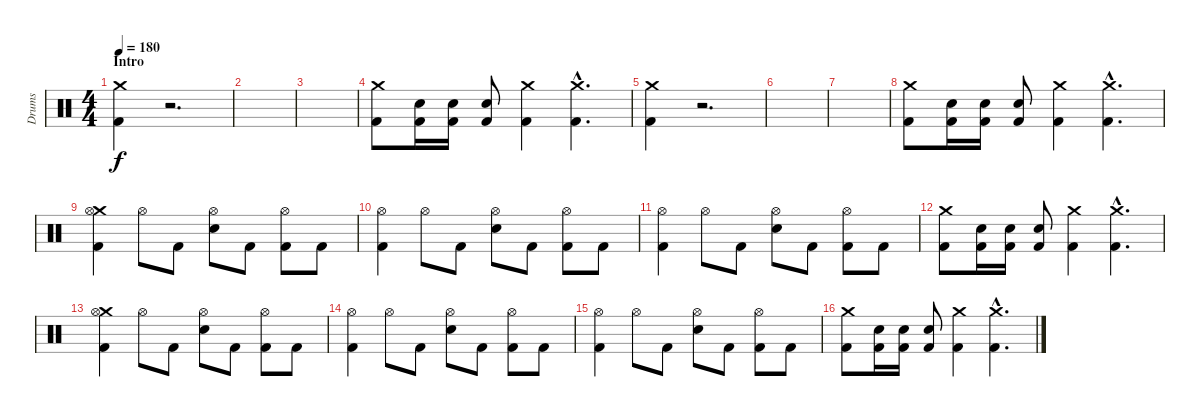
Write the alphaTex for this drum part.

\track ("Drums" "Drums") {instrument percussion}
\staff {score}
\articulation defaults
\ts (4 4)
\section ("" "Intro")
\tempo 180
\clef neutral
\ks c
("Crash medium (hit)" "Kick (hit) 2").4{dy f} r.2{d} |
|
|
("Crash medium (hit)" "Kick (hit) 2").8 ("Snare (hit) 2" "Kick (hit) 2").16 ("Snare (hit) 2" "Kick (hit) 2").16 ("Snare (hit) 2" "Kick (hit) 2").8 ("Crash medium (hit)" "Kick (hit) 2").4 ("Crash medium (hit)"{hac} "Kick (hit) 2"{hac}).4{d} |
("Crash medium (hit)" "Kick (hit) 2").4 r.2{d} |
|
|
("Crash medium (hit)" "Kick (hit) 2").8 ("Snare (hit) 2" "Kick (hit) 2").16 ("Snare (hit) 2" "Kick (hit) 2").16 ("Snare (hit) 2" "Kick (hit) 2").8 ("Crash medium (hit)" "Kick (hit) 2").4 ("Crash medium (hit)"{hac} "Kick (hit) 2"{hac}).4{d} |
("Crash medium (hit)" "Hi-Hat (open)" "Kick (hit) 2").4 "Hi-Hat (open)".8 "Kick (hit) 2".8 ("Hi-Hat (open)" "Snare (hit) 2").8 "Kick (hit) 2".8 ("Hi-Hat (open)" "Kick (hit) 2").8 "Kick (hit) 2".8 |
("Hi-Hat (open)" "Kick (hit) 2").4 "Hi-Hat (open)".8 "Kick (hit) 2".8 ("Hi-Hat (open)" "Snare (hit) 2").8 "Kick (hit) 2".8 ("Hi-Hat (open)" "Kick (hit) 2").8 "Kick (hit) 2".8 |
("Hi-Hat (open)" "Kick (hit) 2").4 "Hi-Hat (open)".8 "Kick (hit) 2".8 ("Hi-Hat (open)" "Snare (hit) 2").8 "Kick (hit) 2".8 ("Hi-Hat (open)" "Kick (hit) 2").8 "Kick (hit) 2".8 |
("Crash medium (hit)" "Kick (hit) 2").8 ("Snare (hit) 2" "Kick (hit) 2").16 ("Snare (hit) 2" "Kick (hit) 2").16 ("Snare (hit) 2" "Kick (hit) 2").8 ("Crash medium (hit)" "Kick (hit) 2").4 ("Crash medium (hit)"{hac} "Kick (hit) 2"{hac}).4{d} |
("Crash medium (hit)" "Hi-Hat (open)" "Kick (hit) 2").4 "Hi-Hat (open)".8 "Kick (hit) 2".8 ("Hi-Hat (open)" "Snare (hit) 2").8 "Kick (hit) 2".8 ("Hi-Hat (open)" "Kick (hit) 2").8 "Kick (hit) 2".8 |
("Hi-Hat (open)" "Kick (hit) 2").4 "Hi-Hat (open)".8 "Kick (hit) 2".8 ("Hi-Hat (open)" "Snare (hit) 2").8 "Kick (hit) 2".8 ("Hi-Hat (open)" "Kick (hit) 2").8 "Kick (hit) 2".8 |
("Hi-Hat (open)" "Kick (hit) 2").4 "Hi-Hat (open)".8 "Kick (hit) 2".8 ("Hi-Hat (open)" "Snare (hit) 2").8 "Kick (hit) 2".8 ("Hi-Hat (open)" "Kick (hit) 2").8 "Kick (hit) 2".8 |
("Crash medium (hit)" "Kick (hit) 2").8 ("Snare (hit) 2" "Kick (hit) 2").16 ("Snare (hit) 2" "Kick (hit) 2").16 ("Snare (hit) 2" "Kick (hit) 2").8 ("Crash medium (hit)" "Kick (hit) 2").4 ("Crash medium (hit)"{hac} "Kick (hit) 2"{hac}).4{d}
